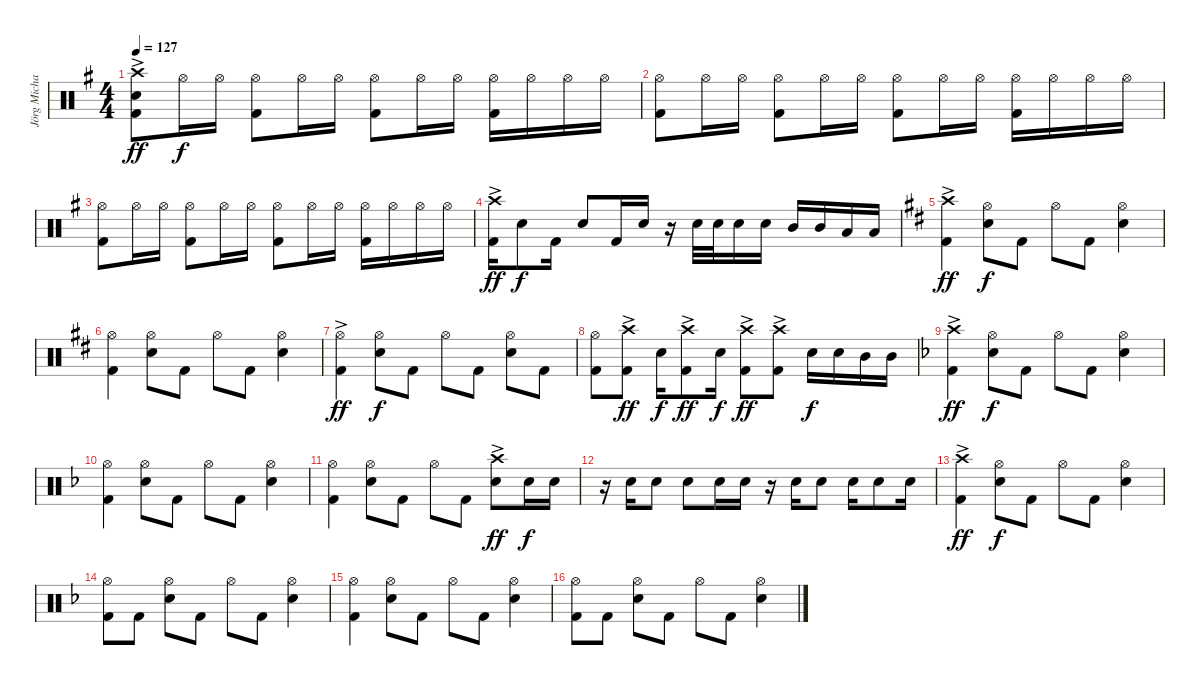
\track ("Jörg Michael" "Jörg Micha") {instrument percussion}
\staff {score}
\articulation defaults
\ts (4 4)
\tempo 127
\clef neutral
\ks g
("Crash high (hit)"{ac} "Kick (hit) 2"{ac} "Electric Snare (hit)"{ac}).8{dy ff} "Hi-Hat (open)".16{dy f} "Hi-Hat (open)".16 ("Hi-Hat (open)" "Kick (hit) 2").8 "Hi-Hat (open)".16 "Hi-Hat (open)".16 ("Hi-Hat (open)" "Kick (hit) 2").8 "Hi-Hat (open)".16 "Hi-Hat (open)".16 ("Hi-Hat (open)" "Kick (hit) 2").16 "Hi-Hat (open)".16 "Hi-Hat (open)".16 "Hi-Hat (open)".16 |
("Hi-Hat (open)" "Kick (hit) 2").8 "Hi-Hat (open)".16 "Hi-Hat (open)".16 ("Hi-Hat (open)" "Kick (hit) 2").8 "Hi-Hat (open)".16 "Hi-Hat (open)".16 ("Hi-Hat (open)" "Kick (hit) 2").8 "Hi-Hat (open)".16 "Hi-Hat (open)".16 ("Hi-Hat (open)" "Kick (hit) 2").16 "Hi-Hat (open)".16 "Hi-Hat (open)".16 "Hi-Hat (open)".16 |
("Hi-Hat (open)" "Kick (hit) 2").8 "Hi-Hat (open)".16 "Hi-Hat (open)".16 ("Hi-Hat (open)" "Kick (hit) 2").8 "Hi-Hat (open)".16 "Hi-Hat (open)".16 ("Hi-Hat (open)" "Kick (hit) 2").8 "Hi-Hat (open)".16 "Hi-Hat (open)".16 ("Hi-Hat (open)" "Kick (hit) 2").16 "Hi-Hat (open)".16 "Hi-Hat (open)".16 "Hi-Hat (open)".16 |
("Crash high (hit)"{ac} "Kick (hit) 2"{ac}).16{dy ff} "Electric Snare (hit)".8{dy f} "Kick (hit) 2".16 "Electric Snare (hit)".8 "Kick (hit) 2".16 "Electric Snare (hit)".16 r.16 "Electric Snare (hit)".32 "Electric Snare (hit)".32 "Electric Snare (hit)".16 "Electric Snare (hit)".16 "Mid Tom (hit)".16 "Mid Tom (hit)".16 "Low Tom (hit)".16 "Low Tom (hit)".16 |
\ks d
("Crash high (hit)"{ac} "Kick (hit) 2"{ac}).4{dy ff} ("Hi-Hat (open)" "Electric Snare (hit)").8{dy f} "Kick (hit) 2".8 "Hi-Hat (open)".8 "Kick (hit) 2".8 ("Electric Snare (hit)" "Hi-Hat (open)").4 |
("Hi-Hat (open)" "Kick (hit) 2").4 ("Hi-Hat (open)" "Electric Snare (hit)").8 "Kick (hit) 2".8 "Hi-Hat (open)".8 "Kick (hit) 2".8 ("Electric Snare (hit)" "Hi-Hat (open)").4 |
("Hi-Hat (open)" "Kick (hit) 2"{ac}).4{dy ff} ("Hi-Hat (open)" "Electric Snare (hit)").8{dy f} "Kick (hit) 2".8 "Hi-Hat (open)".8 "Kick (hit) 2".8 ("Electric Snare (hit)" "Hi-Hat (open)").8 "Kick (hit) 2".8 |
("Hi-Hat (open)" "Kick (hit) 2").8 ("Crash high (hit)"{ac} "Kick (hit) 2"{ac}).8{dy ff} "Electric Snare (hit)".16{dy f} ("Crash high (hit)"{ac} "Kick (hit) 2"{ac}).8{dy ff} "Electric Snare (hit)".16{dy f} ("Crash high (hit)"{ac} "Kick (hit) 2"{ac}).8{dy ff} ("Crash high (hit)"{ac} "Kick (hit) 2"{ac}).8 "Electric Snare (hit)".16{dy f} "Electric Snare (hit)".16 "Mid Tom (hit)".16 "Mid Tom (hit)".16 |
\ks f
("Crash high (hit)"{ac} "Kick (hit) 2"{ac}).4{dy ff} ("Hi-Hat (open)" "Electric Snare (hit)").8{dy f} "Kick (hit) 2".8 "Hi-Hat (open)".8 "Kick (hit) 2".8 ("Electric Snare (hit)" "Hi-Hat (open)").4 |
("Hi-Hat (open)" "Kick (hit) 2").4 ("Hi-Hat (open)" "Electric Snare (hit)").8 "Kick (hit) 2".8 "Hi-Hat (open)".8 "Kick (hit) 2".8 ("Electric Snare (hit)" "Hi-Hat (open)").4 |
("Hi-Hat (open)" "Kick (hit) 2").4 ("Hi-Hat (open)" "Electric Snare (hit)").8 "Kick (hit) 2".8 "Hi-Hat (open)".8 "Kick (hit) 2".8 ("Crash high (hit)"{ac} "Electric Snare (hit)"{ac}).8{dy ff} "Electric Snare (hit)".16{dy f} "Electric Snare (hit)".16 |
r.16 "Electric Snare (hit)".16 "Electric Snare (hit)".8 "Electric Snare (hit)".8 "Electric Snare (hit)".16 "Electric Snare (hit)".16 r.16 "Electric Snare (hit)".16 "Electric Snare (hit)".8 "Electric Snare (hit)".16 "Electric Snare (hit)".8 "Electric Snare (hit)".16 |
("Crash high (hit)"{ac} "Kick (hit) 2"{ac}).4{dy ff} ("Hi-Hat (open)" "Electric Snare (hit)").8{dy f} "Kick (hit) 2".8 "Hi-Hat (open)".8 "Kick (hit) 2".8 ("Electric Snare (hit)" "Hi-Hat (open)").4 |
("Hi-Hat (open)" "Kick (hit) 2").8 "Kick (hit) 2".8 ("Hi-Hat (open)" "Electric Snare (hit)").8 "Kick (hit) 2".8 "Hi-Hat (open)".8 "Kick (hit) 2".8 ("Hi-Hat (open)" "Electric Snare (hit)").4 |
("Hi-Hat (open)" "Kick (hit) 2").4 ("Hi-Hat (open)" "Electric Snare (hit)").8 "Kick (hit) 2".8 "Hi-Hat (open)".8 "Kick (hit) 2".8 ("Electric Snare (hit)" "Hi-Hat (open)").4 |
("Hi-Hat (open)" "Kick (hit) 2").8 "Kick (hit) 2".8 ("Hi-Hat (open)" "Electric Snare (hit)").8 "Kick (hit) 2".8 "Hi-Hat (open)".8 "Kick (hit) 2".8 ("Hi-Hat (open)" "Electric Snare (hit)").4
